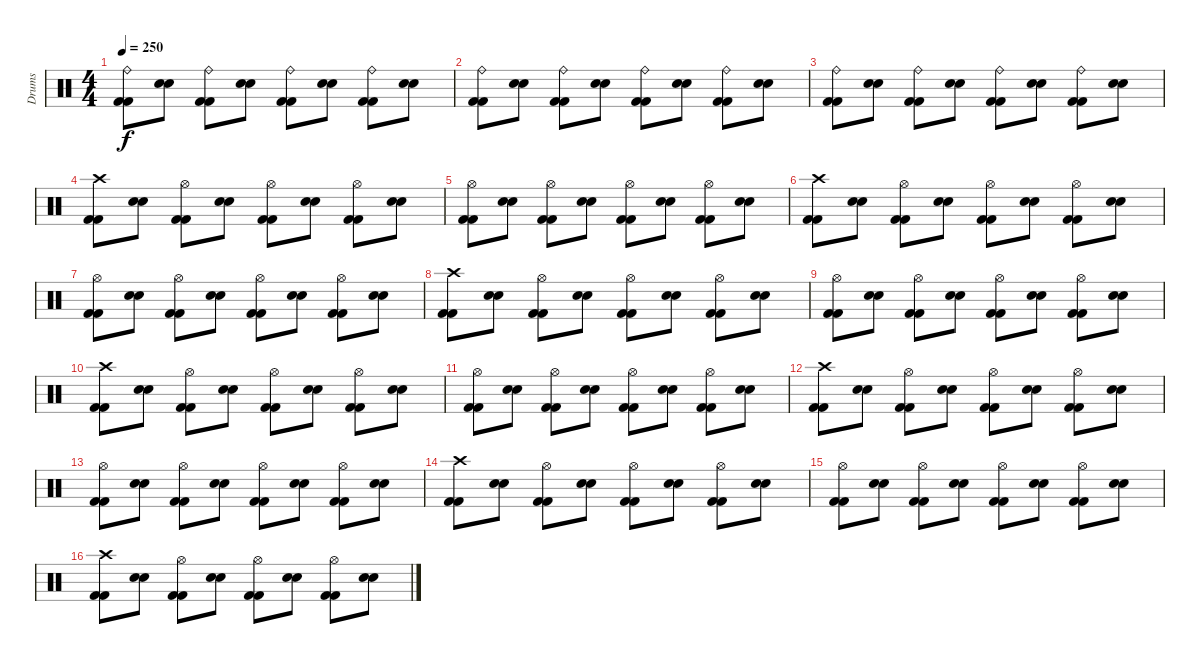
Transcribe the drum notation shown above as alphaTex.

\track ("Drums" "Drums") {instrument percussion}
\staff {score}
\articulation defaults
\ts (4 4)
\tempo 250
\clef neutral
\ks c
("Kick (hit) 2" "Kick (hit) 2" "Ride (bell)").8{dy f} ("Electric Snare (hit)" "Electric Snare (hit)").8 ("Kick (hit) 2" "Kick (hit) 2" "Ride (bell)").8 ("Electric Snare (hit)" "Electric Snare (hit)").8 ("Kick (hit) 2" "Kick (hit) 2" "Ride (bell)").8 ("Electric Snare (hit)" "Electric Snare (hit)").8 ("Kick (hit) 2" "Kick (hit) 2" "Ride (bell)").8 ("Electric Snare (hit)" "Electric Snare (hit)").8 |
("Kick (hit) 2" "Kick (hit) 2" "Ride (bell)").8 ("Electric Snare (hit)" "Electric Snare (hit)").8 ("Kick (hit) 2" "Kick (hit) 2" "Ride (bell)").8 ("Electric Snare (hit)" "Electric Snare (hit)").8 ("Kick (hit) 2" "Kick (hit) 2" "Ride (bell)").8 ("Electric Snare (hit)" "Electric Snare (hit)").8 ("Kick (hit) 2" "Kick (hit) 2" "Ride (bell)").8 ("Electric Snare (hit)" "Electric Snare (hit)").8 |
("Kick (hit) 2" "Kick (hit) 2" "Ride (bell)").8 ("Electric Snare (hit)" "Electric Snare (hit)").8 ("Kick (hit) 2" "Kick (hit) 2" "Ride (bell)").8 ("Electric Snare (hit)" "Electric Snare (hit)").8 ("Kick (hit) 2" "Kick (hit) 2" "Ride (bell)").8 ("Electric Snare (hit)" "Electric Snare (hit)").8 ("Kick (hit) 2" "Kick (hit) 2" "Ride (bell)").8 ("Electric Snare (hit)" "Electric Snare (hit)").8 |
("Kick (hit) 2" "Kick (hit) 2" "Crash high (hit)").8 ("Electric Snare (hit)" "Electric Snare (hit)").8 ("Kick (hit) 2" "Kick (hit) 2" "Hi-Hat (open)").8 ("Electric Snare (hit)" "Electric Snare (hit)").8 ("Kick (hit) 2" "Kick (hit) 2" "Hi-Hat (open)").8 ("Electric Snare (hit)" "Electric Snare (hit)").8 ("Kick (hit) 2" "Kick (hit) 2" "Hi-Hat (open)").8 ("Electric Snare (hit)" "Electric Snare (hit)").8 |
("Kick (hit) 2" "Kick (hit) 2" "Hi-Hat (open)").8 ("Electric Snare (hit)" "Electric Snare (hit)").8 ("Kick (hit) 2" "Kick (hit) 2" "Hi-Hat (open)").8 ("Electric Snare (hit)" "Electric Snare (hit)").8 ("Kick (hit) 2" "Kick (hit) 2" "Hi-Hat (open)").8 ("Electric Snare (hit)" "Electric Snare (hit)").8 ("Kick (hit) 2" "Kick (hit) 2" "Hi-Hat (open)").8 ("Electric Snare (hit)" "Electric Snare (hit)").8 |
("Kick (hit) 2" "Kick (hit) 2" "Crash high (hit)").8 ("Electric Snare (hit)" "Electric Snare (hit)").8 ("Kick (hit) 2" "Kick (hit) 2" "Hi-Hat (open)").8 ("Electric Snare (hit)" "Electric Snare (hit)").8 ("Kick (hit) 2" "Kick (hit) 2" "Hi-Hat (open)").8 ("Electric Snare (hit)" "Electric Snare (hit)").8 ("Kick (hit) 2" "Kick (hit) 2" "Hi-Hat (open)").8 ("Electric Snare (hit)" "Electric Snare (hit)").8 |
("Kick (hit) 2" "Kick (hit) 2" "Hi-Hat (open)").8 ("Electric Snare (hit)" "Electric Snare (hit)").8 ("Kick (hit) 2" "Kick (hit) 2" "Hi-Hat (open)").8 ("Electric Snare (hit)" "Electric Snare (hit)").8 ("Kick (hit) 2" "Kick (hit) 2" "Hi-Hat (open)").8 ("Electric Snare (hit)" "Electric Snare (hit)").8 ("Kick (hit) 2" "Kick (hit) 2" "Hi-Hat (open)").8 ("Electric Snare (hit)" "Electric Snare (hit)").8 |
("Kick (hit) 2" "Kick (hit) 2" "Crash high (hit)").8 ("Electric Snare (hit)" "Electric Snare (hit)").8 ("Kick (hit) 2" "Kick (hit) 2" "Hi-Hat (open)").8 ("Electric Snare (hit)" "Electric Snare (hit)").8 ("Kick (hit) 2" "Kick (hit) 2" "Hi-Hat (open)").8 ("Electric Snare (hit)" "Electric Snare (hit)").8 ("Kick (hit) 2" "Kick (hit) 2" "Hi-Hat (open)").8 ("Electric Snare (hit)" "Electric Snare (hit)").8 |
("Kick (hit) 2" "Kick (hit) 2" "Hi-Hat (open)").8 ("Electric Snare (hit)" "Electric Snare (hit)").8 ("Kick (hit) 2" "Kick (hit) 2" "Hi-Hat (open)").8 ("Electric Snare (hit)" "Electric Snare (hit)").8 ("Kick (hit) 2" "Kick (hit) 2" "Hi-Hat (open)").8 ("Electric Snare (hit)" "Electric Snare (hit)").8 ("Kick (hit) 2" "Kick (hit) 2" "Hi-Hat (open)").8 ("Electric Snare (hit)" "Electric Snare (hit)").8 |
("Kick (hit) 2" "Kick (hit) 2" "Crash high (hit)").8 ("Electric Snare (hit)" "Electric Snare (hit)").8 ("Kick (hit) 2" "Kick (hit) 2" "Hi-Hat (open)").8 ("Electric Snare (hit)" "Electric Snare (hit)").8 ("Kick (hit) 2" "Kick (hit) 2" "Hi-Hat (open)").8 ("Electric Snare (hit)" "Electric Snare (hit)").8 ("Kick (hit) 2" "Kick (hit) 2" "Hi-Hat (open)").8 ("Electric Snare (hit)" "Electric Snare (hit)").8 |
("Kick (hit) 2" "Kick (hit) 2" "Hi-Hat (open)").8 ("Electric Snare (hit)" "Electric Snare (hit)").8 ("Kick (hit) 2" "Kick (hit) 2" "Hi-Hat (open)").8 ("Electric Snare (hit)" "Electric Snare (hit)").8 ("Kick (hit) 2" "Kick (hit) 2" "Hi-Hat (open)").8 ("Electric Snare (hit)" "Electric Snare (hit)").8 ("Kick (hit) 2" "Kick (hit) 2" "Hi-Hat (open)").8 ("Electric Snare (hit)" "Electric Snare (hit)").8 |
("Kick (hit) 2" "Kick (hit) 2" "Crash high (hit)").8 ("Electric Snare (hit)" "Electric Snare (hit)").8 ("Kick (hit) 2" "Kick (hit) 2" "Hi-Hat (open)").8 ("Electric Snare (hit)" "Electric Snare (hit)").8 ("Kick (hit) 2" "Kick (hit) 2" "Hi-Hat (open)").8 ("Electric Snare (hit)" "Electric Snare (hit)").8 ("Kick (hit) 2" "Kick (hit) 2" "Hi-Hat (open)").8 ("Electric Snare (hit)" "Electric Snare (hit)").8 |
("Kick (hit) 2" "Kick (hit) 2" "Hi-Hat (open)").8 ("Electric Snare (hit)" "Electric Snare (hit)").8 ("Kick (hit) 2" "Kick (hit) 2" "Hi-Hat (open)").8 ("Electric Snare (hit)" "Electric Snare (hit)").8 ("Kick (hit) 2" "Kick (hit) 2" "Hi-Hat (open)").8 ("Electric Snare (hit)" "Electric Snare (hit)").8 ("Kick (hit) 2" "Kick (hit) 2" "Hi-Hat (open)").8 ("Electric Snare (hit)" "Electric Snare (hit)").8 |
("Kick (hit) 2" "Kick (hit) 2" "Crash high (hit)").8 ("Electric Snare (hit)" "Electric Snare (hit)").8 ("Kick (hit) 2" "Kick (hit) 2" "Hi-Hat (open)").8 ("Electric Snare (hit)" "Electric Snare (hit)").8 ("Kick (hit) 2" "Kick (hit) 2" "Hi-Hat (open)").8 ("Electric Snare (hit)" "Electric Snare (hit)").8 ("Kick (hit) 2" "Kick (hit) 2" "Hi-Hat (open)").8 ("Electric Snare (hit)" "Electric Snare (hit)").8 |
("Kick (hit) 2" "Kick (hit) 2" "Hi-Hat (open)").8 ("Electric Snare (hit)" "Electric Snare (hit)").8 ("Kick (hit) 2" "Kick (hit) 2" "Hi-Hat (open)").8 ("Electric Snare (hit)" "Electric Snare (hit)").8 ("Kick (hit) 2" "Kick (hit) 2" "Hi-Hat (open)").8 ("Electric Snare (hit)" "Electric Snare (hit)").8 ("Kick (hit) 2" "Kick (hit) 2" "Hi-Hat (open)").8 ("Electric Snare (hit)" "Electric Snare (hit)").8 |
("Kick (hit) 2" "Kick (hit) 2" "Crash high (hit)").8 ("Electric Snare (hit)" "Electric Snare (hit)").8 ("Kick (hit) 2" "Kick (hit) 2" "Hi-Hat (open)").8 ("Electric Snare (hit)" "Electric Snare (hit)").8 ("Kick (hit) 2" "Kick (hit) 2" "Hi-Hat (open)").8 ("Electric Snare (hit)" "Electric Snare (hit)").8 ("Kick (hit) 2" "Kick (hit) 2" "Hi-Hat (open)").8 ("Electric Snare (hit)" "Electric Snare (hit)").8
